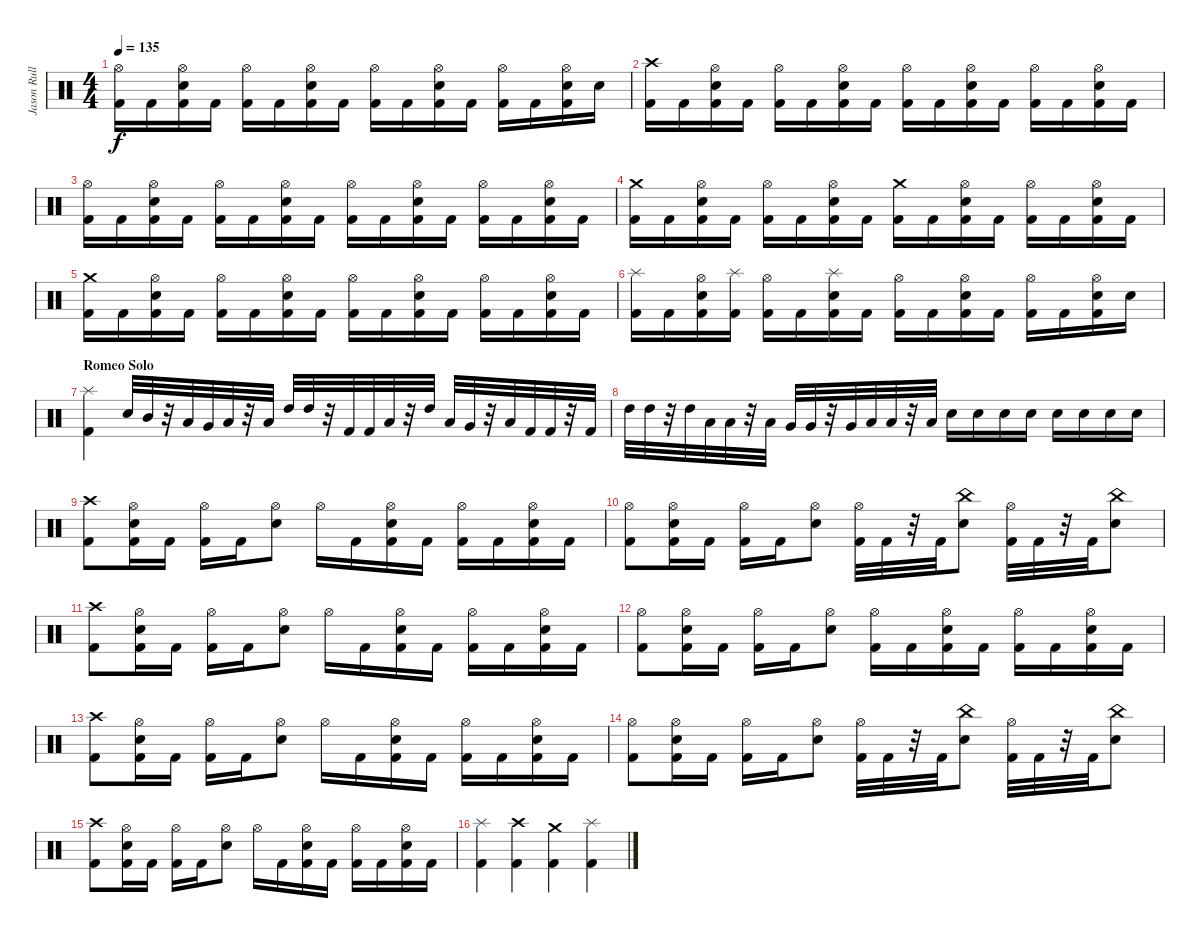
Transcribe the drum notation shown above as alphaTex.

\track ("Jason Rullo" "Jason Rull") {instrument percussion}
\staff {score}
\articulation defaults
\ts (4 4)
\tempo 135
\clef neutral
\ks c
("Kick (hit) 2" "Hi-Hat (open)").16{dy f} "Kick (hit) 2".16 ("Kick (hit) 2" "Electric Snare (hit)" "Hi-Hat (open)").16 "Kick (hit) 2".16 ("Kick (hit) 2" "Hi-Hat (open)").16 "Kick (hit) 2".16 ("Kick (hit) 2" "Electric Snare (hit)" "Hi-Hat (open)").16 "Kick (hit) 2".16 ("Kick (hit) 2" "Hi-Hat (open)").16 "Kick (hit) 2".16 ("Kick (hit) 2" "Electric Snare (hit)" "Hi-Hat (open)").16 "Kick (hit) 2".16 ("Kick (hit) 2" "Hi-Hat (open)").16 "Kick (hit) 2".16 ("Kick (hit) 2" "Electric Snare (hit)" "Hi-Hat (open)").16 "Electric Snare (hit)".16 |
("Kick (hit) 2" "Crash high (hit)").16 "Kick (hit) 2".16 ("Hi-Hat (open)" "Electric Snare (hit)" "Kick (hit) 2").16 "Kick (hit) 2".16 ("Hi-Hat (open)" "Kick (hit) 2").16 "Kick (hit) 2".16 ("Hi-Hat (open)" "Electric Snare (hit)" "Kick (hit) 2").16 "Kick (hit) 2".16 ("Hi-Hat (open)" "Kick (hit) 2").16 "Kick (hit) 2".16 ("Hi-Hat (open)" "Electric Snare (hit)" "Kick (hit) 2").16 "Kick (hit) 2".16 ("Hi-Hat (open)" "Kick (hit) 2").16 "Kick (hit) 2".16 ("Hi-Hat (open)" "Electric Snare (hit)" "Kick (hit) 2").16 "Kick (hit) 2".16 |
("Kick (hit) 2" "Hi-Hat (open)").16 "Kick (hit) 2".16 ("Kick (hit) 2" "Electric Snare (hit)" "Hi-Hat (open)").16 "Kick (hit) 2".16 ("Kick (hit) 2" "Hi-Hat (open)").16 "Kick (hit) 2".16 ("Kick (hit) 2" "Electric Snare (hit)" "Hi-Hat (open)").16 "Kick (hit) 2".16 ("Kick (hit) 2" "Hi-Hat (open)").16 "Kick (hit) 2".16 ("Kick (hit) 2" "Electric Snare (hit)" "Hi-Hat (open)").16 "Kick (hit) 2".16 ("Kick (hit) 2" "Hi-Hat (open)").16 "Kick (hit) 2".16 ("Kick (hit) 2" "Electric Snare (hit)" "Hi-Hat (open)").16 "Kick (hit) 2".16 |
("Crash medium (hit)" "Kick (hit) 2").16 "Kick (hit) 2".16 ("Kick (hit) 2" "Electric Snare (hit)" "Hi-Hat (open)").16 "Kick (hit) 2".16 ("Kick (hit) 2" "Hi-Hat (open)").16 "Kick (hit) 2".16 ("Kick (hit) 2" "Electric Snare (hit)" "Hi-Hat (open)").16 "Kick (hit) 2".16 ("Crash medium (hit)" "Kick (hit) 2").16 "Kick (hit) 2".16 ("Kick (hit) 2" "Electric Snare (hit)" "Hi-Hat (open)").16 "Kick (hit) 2".16 ("Kick (hit) 2" "Hi-Hat (open)").16 "Kick (hit) 2".16 ("Kick (hit) 2" "Electric Snare (hit)" "Hi-Hat (open)").16 "Kick (hit) 2".16 |
("Crash medium (hit)" "Kick (hit) 2").16 "Kick (hit) 2".16 ("Kick (hit) 2" "Electric Snare (hit)" "Hi-Hat (open)").16 "Kick (hit) 2".16 ("Kick (hit) 2" "Hi-Hat (open)").16 "Kick (hit) 2".16 ("Kick (hit) 2" "Electric Snare (hit)" "Hi-Hat (open)").16 "Kick (hit) 2".16 ("Kick (hit) 2" "Hi-Hat (open)").16 "Kick (hit) 2".16 ("Kick (hit) 2" "Electric Snare (hit)" "Hi-Hat (open)").16 "Kick (hit) 2".16 ("Kick (hit) 2" "Hi-Hat (open)").16 "Kick (hit) 2".16 ("Kick (hit) 2" "Electric Snare (hit)" "Hi-Hat (open)").16 "Kick (hit) 2".16 |
("Splash (hit)" "Kick (hit) 2").16 "Kick (hit) 2".16 ("Hi-Hat (open)" "Kick (hit) 2" "Electric Snare (hit)").16 ("Splash (hit)" "Kick (hit) 2").16 ("Hi-Hat (open)" "Kick (hit) 2").16 "Kick (hit) 2".16 ("Splash (hit)" "Kick (hit) 2" "Electric Snare (hit)").16 "Kick (hit) 2".16 ("Kick (hit) 2" "Hi-Hat (open)").16 "Kick (hit) 2".16 ("Kick (hit) 2" "Electric Snare (hit)" "Hi-Hat (open)").16 "Kick (hit) 2".16 ("Kick (hit) 2" "Hi-Hat (open)").16 "Kick (hit) 2".16 ("Kick (hit) 2" "Electric Snare (hit)" "Hi-Hat (open)").16 "Electric Snare (hit)".16 |
\section ("" "Romeo Solo")
("Splash (hit)" "Kick (hit) 2").4 "Electric Snare (hit)".32 "Mid Tom (hit)".32 r.32 "Low Tom (hit)".32 "Very Low Tom (hit)".32 "Low Floor Tom (hit)".32 r.32 "Low Floor Tom (hit)".32 "High Tom (hit)".32 "High Tom (hit)".32 r.32 "Kick (hit) 2".32 "Kick (hit) 2".32 "Low Tom (hit)".32 r.32 "High Tom (hit)".32 "Low Tom (hit)".32 "Very Low Tom (hit)".32 r.32 "Low Floor Tom (hit)".32 "Kick (hit) 2".32 "Kick (hit) 2".32 r.32 "Kick (hit) 2".32 |
"High Tom (hit)".32 "High Tom (hit)".32 r.32 "High Tom (hit)".32 "Low Tom (hit)".32 "Low Tom (hit)".32 r.32 "Low Tom (hit)".32 "Very Low Tom (hit)".32 "Very Low Tom (hit)".32 r.32 "Very Low Tom (hit)".32 "Low Floor Tom (hit)".32 "Low Floor Tom (hit)".32 r.32 "Low Floor Tom (hit)".32 "Electric Snare (hit)".16 "Electric Snare (hit)".16 "Electric Snare (hit)".16 "Electric Snare (hit)".16 "Electric Snare (hit)".16 "Electric Snare (hit)".16 "Electric Snare (hit)".16 "Electric Snare (hit)".16 |
("Crash high (hit)" "Kick (hit) 2").8 ("Hi-Hat (open)" "Electric Snare (hit)" "Kick (hit) 2").16 "Kick (hit) 2".16 ("Hi-Hat (open)" "Kick (hit) 2").16 "Kick (hit) 2".16 ("Hi-Hat (open)" "Electric Snare (hit)").8 "Hi-Hat (open)".16 "Kick (hit) 2".16 ("Hi-Hat (open)" "Electric Snare (hit)" "Kick (hit) 2").16 "Kick (hit) 2".16 ("Hi-Hat (open)" "Kick (hit) 2").16 "Kick (hit) 2".16 ("Hi-Hat (open)" "Electric Snare (hit)" "Kick (hit) 2").16 "Kick (hit) 2".16 |
("Hi-Hat (open)" "Kick (hit) 2").8 ("Hi-Hat (open)" "Electric Snare (hit)" "Kick (hit) 2").16 "Kick (hit) 2".16 ("Hi-Hat (open)" "Kick (hit) 2").16 "Kick (hit) 2".16 ("Hi-Hat (open)" "Electric Snare (hit)").8 ("Hi-Hat (open)" "Kick (hit) 2").32 "Kick (hit) 2".32 r.32 "Kick (hit) 2".32 ("China (hit)" "Electric Snare (hit)").8 ("Hi-Hat (open)" "Kick (hit) 2").32 "Kick (hit) 2".32 r.32 "Kick (hit) 2".32 ("China (hit)" "Electric Snare (hit)").8 |
("Crash high (hit)" "Kick (hit) 2").8 ("Hi-Hat (open)" "Electric Snare (hit)" "Kick (hit) 2").16 "Kick (hit) 2".16 ("Hi-Hat (open)" "Kick (hit) 2").16 "Kick (hit) 2".16 ("Hi-Hat (open)" "Electric Snare (hit)").8 "Hi-Hat (open)".16 "Kick (hit) 2".16 ("Hi-Hat (open)" "Electric Snare (hit)" "Kick (hit) 2").16 "Kick (hit) 2".16 ("Hi-Hat (open)" "Kick (hit) 2").16 "Kick (hit) 2".16 ("Hi-Hat (open)" "Electric Snare (hit)" "Kick (hit) 2").16 "Kick (hit) 2".16 |
("Hi-Hat (open)" "Kick (hit) 2").8 ("Hi-Hat (open)" "Electric Snare (hit)" "Kick (hit) 2").16 "Kick (hit) 2".16 ("Hi-Hat (open)" "Kick (hit) 2").16 "Kick (hit) 2".16 ("Hi-Hat (open)" "Electric Snare (hit)").8 ("Kick (hit) 2" "Hi-Hat (open)").16 "Kick (hit) 2".16 ("Hi-Hat (open)" "Electric Snare (hit)" "Kick (hit) 2").16 "Kick (hit) 2".16 ("Hi-Hat (open)" "Kick (hit) 2").16 "Kick (hit) 2".16 ("Hi-Hat (open)" "Electric Snare (hit)" "Kick (hit) 2").16 "Kick (hit) 2".16 |
("Crash high (hit)" "Kick (hit) 2").8 ("Hi-Hat (open)" "Electric Snare (hit)" "Kick (hit) 2").16 "Kick (hit) 2".16 ("Hi-Hat (open)" "Kick (hit) 2").16 "Kick (hit) 2".16 ("Hi-Hat (open)" "Electric Snare (hit)").8 "Hi-Hat (open)".16 "Kick (hit) 2".16 ("Hi-Hat (open)" "Electric Snare (hit)" "Kick (hit) 2").16 "Kick (hit) 2".16 ("Hi-Hat (open)" "Kick (hit) 2").16 "Kick (hit) 2".16 ("Hi-Hat (open)" "Electric Snare (hit)" "Kick (hit) 2").16 "Kick (hit) 2".16 |
("Hi-Hat (open)" "Kick (hit) 2").8 ("Hi-Hat (open)" "Electric Snare (hit)" "Kick (hit) 2").16 "Kick (hit) 2".16 ("Hi-Hat (open)" "Kick (hit) 2").16 "Kick (hit) 2".16 ("Hi-Hat (open)" "Electric Snare (hit)").8 ("Hi-Hat (open)" "Kick (hit) 2").32 "Kick (hit) 2".32 r.32 "Kick (hit) 2".32 ("China (hit)" "Electric Snare (hit)").8 ("Hi-Hat (open)" "Kick (hit) 2").32 "Kick (hit) 2".32 r.32 "Kick (hit) 2".32 ("China (hit)" "Electric Snare (hit)").8 |
("Crash high (hit)" "Kick (hit) 2").8 ("Hi-Hat (open)" "Electric Snare (hit)" "Kick (hit) 2").16 "Kick (hit) 2".16 ("Hi-Hat (open)" "Kick (hit) 2").16 "Kick (hit) 2".16 ("Hi-Hat (open)" "Electric Snare (hit)").8 "Hi-Hat (open)".16 "Kick (hit) 2".16 ("Hi-Hat (open)" "Electric Snare (hit)" "Kick (hit) 2").16 "Kick (hit) 2".16 ("Hi-Hat (open)" "Kick (hit) 2").16 "Kick (hit) 2".16 ("Hi-Hat (open)" "Electric Snare (hit)" "Kick (hit) 2").16 "Kick (hit) 2".16 |
("Splash (hit)" "Kick (hit) 2").4 ("Crash high (hit)" "Kick (hit) 2").4 ("Crash medium (hit)" "Kick (hit) 2").4 ("Splash (hit)" "Kick (hit) 2").4
